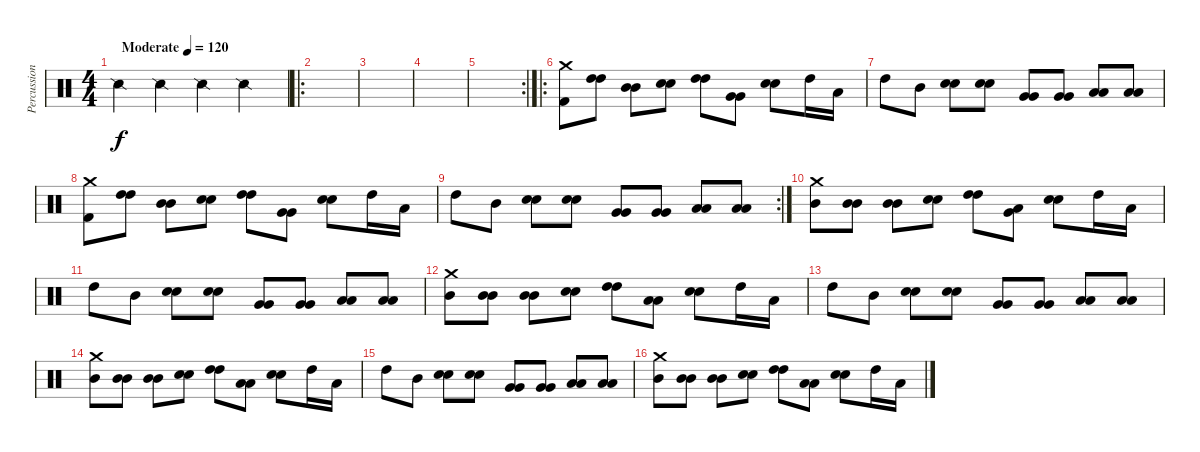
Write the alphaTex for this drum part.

\track ("Percussion" "Percussion") {instrument percussion}
\staff {score}
\articulation defaults
\ts (4 4)
\tempo (120 "Moderate")
\clef neutral
\ks c "Snare (side stick) 2".4{dy f} "Snare (side stick) 2".4 "Snare (side stick) 2".4 "Snare (side stick) 2".4
|
\ro
|
|
|
\rc 2
|
\ro
("Crash medium (hit)" "Kick (hit) 2").8 ("High Tom (hit)" "High Tom (hit)").8 ("Mid Tom (hit)" "Mid Tom (hit)").8 ("Electric Snare (hit)" "Electric Snare (hit)").8 ("High Tom (hit)" "High Tom (hit)").8 ("Very Low Tom (hit)" "Very Low Tom (hit)").8 ("Electric Snare (hit)" "Electric Snare (hit)").8 "High Tom (hit)".16 "Low Tom (hit)".16 |
"High Tom (hit)".8 "Mid Tom (hit)".8 ("Electric Snare (hit)" "Electric Snare (hit)").8 ("Electric Snare (hit)" "Electric Snare (hit)").8 ("Very Low Tom (hit)" "Very Low Tom (hit)").8 ("Very Low Tom (hit)" "Very Low Tom (hit)").8 ("Low Floor Tom (hit)" "Low Floor Tom (hit)").8 ("Low Floor Tom (hit)" "Low Floor Tom (hit)").8 |
("Crash medium (hit)" "Kick (hit) 2").8 ("High Tom (hit)" "High Tom (hit)").8 ("Mid Tom (hit)" "Mid Tom (hit)").8 ("Electric Snare (hit)" "Electric Snare (hit)").8 ("High Tom (hit)" "High Tom (hit)").8 ("Very Low Tom (hit)" "Very Low Tom (hit)").8 ("Electric Snare (hit)" "Electric Snare (hit)").8 "High Tom (hit)".16 "Low Tom (hit)".16 |
\rc 2 "High Tom (hit)".8 "Mid Tom (hit)".8
("Electric Snare (hit)" "Electric Snare (hit)").8 ("Electric Snare (hit)" "Electric Snare (hit)").8 ("Very Low Tom (hit)" "Very Low Tom (hit)").8 ("Very Low Tom (hit)" "Very Low Tom (hit)").8 ("Low Floor Tom (hit)" "Low Floor Tom (hit)").8 ("Low Floor Tom (hit)" "Low Floor Tom (hit)").8 |
("Crash medium (hit)" "Mid Tom (hit)").8 ("Mid Tom (hit)" "Mid Tom (hit)").8 ("Mid Tom (hit)" "Mid Tom (hit)").8 ("Electric Snare (hit)" "Electric Snare (hit)").8 ("High Tom (hit)" "High Tom (hit)").8 ("Low Tom (hit)" "Very Low Tom (hit)").8 ("Electric Snare (hit)" "Electric Snare (hit)").8 "High Tom (hit)".16 "Low Tom (hit)".16 |
"High Tom (hit)".8 "Mid Tom (hit)".8 ("Electric Snare (hit)" "Electric Snare (hit)").8 ("Electric Snare (hit)" "Electric Snare (hit)").8 ("Very Low Tom (hit)" "Very Low Tom (hit)").8 ("Very Low Tom (hit)" "Very Low Tom (hit)").8 ("Low Floor Tom (hit)" "Low Floor Tom (hit)").8 ("Low Floor Tom (hit)" "Low Floor Tom (hit)").8 |
("Crash medium (hit)" "Mid Tom (hit)").8 ("Mid Tom (hit)" "Mid Tom (hit)").8 ("Mid Tom (hit)" "Mid Tom (hit)").8 ("Electric Snare (hit)" "Electric Snare (hit)").8 ("High Tom (hit)" "High Tom (hit)").8 ("Low Tom (hit)" "Low Tom (hit)").8 ("Electric Snare (hit)" "Electric Snare (hit)").8 "High Tom (hit)".16 "Low Tom (hit)".16 |
"High Tom (hit)".8 "Mid Tom (hit)".8 ("Electric Snare (hit)" "Electric Snare (hit)").8 ("Electric Snare (hit)" "Electric Snare (hit)").8 ("Very Low Tom (hit)" "Very Low Tom (hit)").8 ("Very Low Tom (hit)" "Very Low Tom (hit)").8 ("Low Floor Tom (hit)" "Low Floor Tom (hit)").8 ("Low Floor Tom (hit)" "Low Floor Tom (hit)").8 |
("Crash medium (hit)" "Mid Tom (hit)").8 ("Mid Tom (hit)" "Mid Tom (hit)").8 ("Mid Tom (hit)" "Mid Tom (hit)").8 ("Electric Snare (hit)" "Electric Snare (hit)").8 ("High Tom (hit)" "High Tom (hit)").8 ("Low Tom (hit)" "Low Tom (hit)").8 ("Electric Snare (hit)" "Electric Snare (hit)").8 "High Tom (hit)".16 "Low Tom (hit)".16 |
"High Tom (hit)".8 "Mid Tom (hit)".8 ("Electric Snare (hit)" "Electric Snare (hit)").8 ("Electric Snare (hit)" "Electric Snare (hit)").8 ("Very Low Tom (hit)" "Very Low Tom (hit)").8 ("Very Low Tom (hit)" "Very Low Tom (hit)").8 ("Low Floor Tom (hit)" "Low Floor Tom (hit)").8 ("Low Floor Tom (hit)" "Low Floor Tom (hit)").8 |
("Crash medium (hit)" "Mid Tom (hit)").8 ("Mid Tom (hit)" "Mid Tom (hit)").8 ("Mid Tom (hit)" "Mid Tom (hit)").8 ("Electric Snare (hit)" "Electric Snare (hit)").8 ("High Tom (hit)" "High Tom (hit)").8 ("Low Tom (hit)" "Low Tom (hit)").8 ("Electric Snare (hit)" "Electric Snare (hit)").8 "High Tom (hit)".16 "Low Tom (hit)".16
